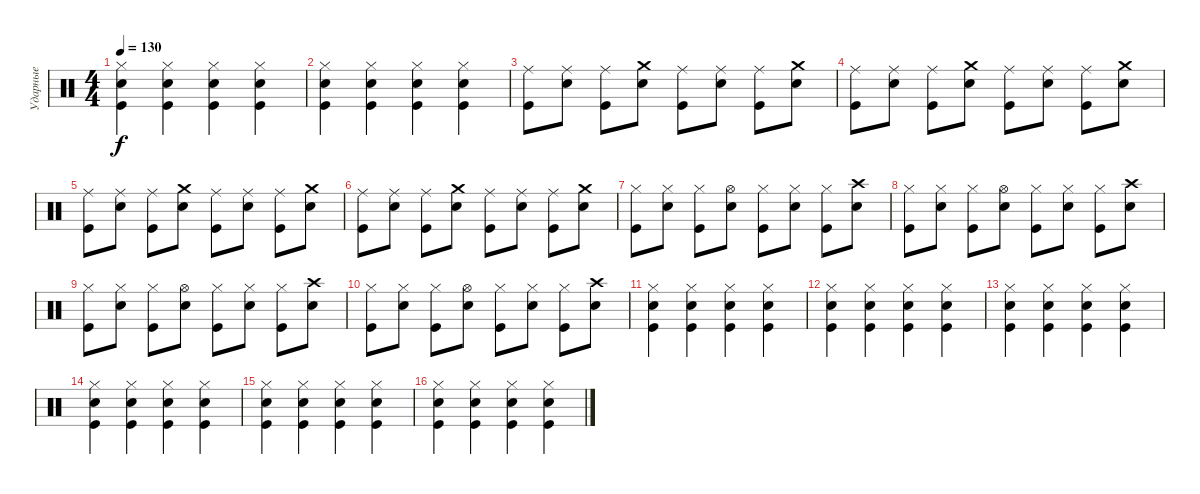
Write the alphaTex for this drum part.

\track ("Ударные" "Ударные") {instrument percussion}
\staff {score}
\articulation defaults
\ts (4 4)
\tempo 130
\clef neutral
\ks c
("Hi-Hat (closed)" "Snare (hit) 2" "Kick (hit)").4{dy f} ("Hi-Hat (closed)" "Snare (hit) 2" "Kick (hit)").4 ("Hi-Hat (closed)" "Snare (hit) 2" "Kick (hit)").4 ("Hi-Hat (closed)" "Snare (hit) 2" "Kick (hit)").4 |
("Hi-Hat (closed)" "Snare (hit) 2" "Kick (hit)").4 ("Hi-Hat (closed)" "Snare (hit) 2" "Kick (hit)").4 ("Hi-Hat (closed)" "Snare (hit) 2" "Kick (hit)").4 ("Hi-Hat (closed)" "Snare (hit) 2" "Kick (hit)").4 |
("Ride (middle)" "Kick (hit)").8 ("Ride (middle)" "Snare (hit) 2").8 ("Ride (middle)" "Kick (hit)").8 ("Crash medium (hit)" "Snare (hit) 2").8 ("Ride (middle)" "Kick (hit)").8 ("Ride (middle)" "Snare (hit) 2").8 ("Ride (middle)" "Kick (hit)").8 ("Crash medium (hit)" "Snare (hit) 2").8 |
("Ride (middle)" "Kick (hit)").8 ("Ride (middle)" "Snare (hit) 2").8 ("Ride (middle)" "Kick (hit)").8 ("Crash medium (hit)" "Snare (hit) 2").8 ("Ride (middle)" "Kick (hit)").8 ("Ride (middle)" "Snare (hit) 2").8 ("Ride (middle)" "Kick (hit)").8 ("Crash medium (hit)" "Snare (hit) 2").8 |
("Ride (middle)" "Kick (hit)").8 ("Ride (middle)" "Snare (hit) 2").8 ("Ride (middle)" "Kick (hit)").8 ("Crash medium (hit)" "Snare (hit) 2").8 ("Ride (middle)" "Kick (hit)").8 ("Ride (middle)" "Snare (hit) 2").8 ("Ride (middle)" "Kick (hit)").8 ("Crash medium (hit)" "Snare (hit) 2").8 |
("Ride (middle)" "Kick (hit)").8 ("Ride (middle)" "Snare (hit) 2").8 ("Ride (middle)" "Kick (hit)").8 ("Crash medium (hit)" "Snare (hit) 2").8 ("Ride (middle)" "Kick (hit)").8 ("Ride (middle)" "Snare (hit) 2").8 ("Ride (middle)" "Kick (hit)").8 ("Crash medium (hit)" "Snare (hit) 2").8 |
("Hi-Hat (closed)" "Kick (hit)").8 ("Hi-Hat (closed)" "Snare (hit) 2").8 ("Hi-Hat (closed)" "Kick (hit)").8 ("Hi-Hat (open)" "Snare (hit) 2").8 ("Hi-Hat (closed)" "Kick (hit)").8 ("Hi-Hat (closed)" "Snare (hit) 2").8 ("Hi-Hat (closed)" "Kick (hit)").8 ("Crash high (hit)" "Snare (hit) 2").8 |
("Hi-Hat (closed)" "Kick (hit)").8 ("Hi-Hat (closed)" "Snare (hit) 2").8 ("Hi-Hat (closed)" "Kick (hit)").8 ("Hi-Hat (open)" "Snare (hit) 2").8 ("Hi-Hat (closed)" "Kick (hit)").8 ("Hi-Hat (closed)" "Snare (hit) 2").8 ("Hi-Hat (closed)" "Kick (hit)").8 ("Crash high (hit)" "Snare (hit) 2").8 |
("Hi-Hat (closed)" "Kick (hit)").8 ("Hi-Hat (closed)" "Snare (hit) 2").8 ("Hi-Hat (closed)" "Kick (hit)").8 ("Hi-Hat (open)" "Snare (hit) 2").8 ("Hi-Hat (closed)" "Kick (hit)").8 ("Hi-Hat (closed)" "Snare (hit) 2").8 ("Hi-Hat (closed)" "Kick (hit)").8 ("Crash high (hit)" "Snare (hit) 2").8 |
("Hi-Hat (closed)" "Kick (hit)").8 ("Hi-Hat (closed)" "Snare (hit) 2").8 ("Hi-Hat (closed)" "Kick (hit)").8 ("Hi-Hat (open)" "Snare (hit) 2").8 ("Hi-Hat (closed)" "Kick (hit)").8 ("Hi-Hat (closed)" "Snare (hit) 2").8 ("Hi-Hat (closed)" "Kick (hit)").8 ("Crash high (hit)" "Snare (hit) 2").8 |
("Hi-Hat (closed)" "Snare (hit) 2" "Kick (hit)").4 ("Hi-Hat (closed)" "Snare (hit) 2" "Kick (hit)").4 ("Hi-Hat (closed)" "Snare (hit) 2" "Kick (hit)").4 ("Hi-Hat (closed)" "Snare (hit) 2" "Kick (hit)").4 |
("Hi-Hat (closed)" "Snare (hit) 2" "Kick (hit)").4 ("Hi-Hat (closed)" "Snare (hit) 2" "Kick (hit)").4 ("Hi-Hat (closed)" "Snare (hit) 2" "Kick (hit)").4 ("Hi-Hat (closed)" "Snare (hit) 2" "Kick (hit)").4 |
("Hi-Hat (closed)" "Snare (hit) 2" "Kick (hit)").4 ("Hi-Hat (closed)" "Snare (hit) 2" "Kick (hit)").4 ("Hi-Hat (closed)" "Snare (hit) 2" "Kick (hit)").4 ("Hi-Hat (closed)" "Snare (hit) 2" "Kick (hit)").4 |
("Hi-Hat (closed)" "Snare (hit) 2" "Kick (hit)").4 ("Hi-Hat (closed)" "Snare (hit) 2" "Kick (hit)").4 ("Hi-Hat (closed)" "Snare (hit) 2" "Kick (hit)").4 ("Hi-Hat (closed)" "Snare (hit) 2" "Kick (hit)").4 |
("Hi-Hat (closed)" "Snare (hit) 2" "Kick (hit)").4 ("Hi-Hat (closed)" "Snare (hit) 2" "Kick (hit)").4 ("Hi-Hat (closed)" "Snare (hit) 2" "Kick (hit)").4 ("Hi-Hat (closed)" "Snare (hit) 2" "Kick (hit)").4 |
("Hi-Hat (closed)" "Snare (hit) 2" "Kick (hit)").4 ("Hi-Hat (closed)" "Snare (hit) 2" "Kick (hit)").4 ("Hi-Hat (closed)" "Snare (hit) 2" "Kick (hit)").4 ("Hi-Hat (closed)" "Snare (hit) 2" "Kick (hit)").4
